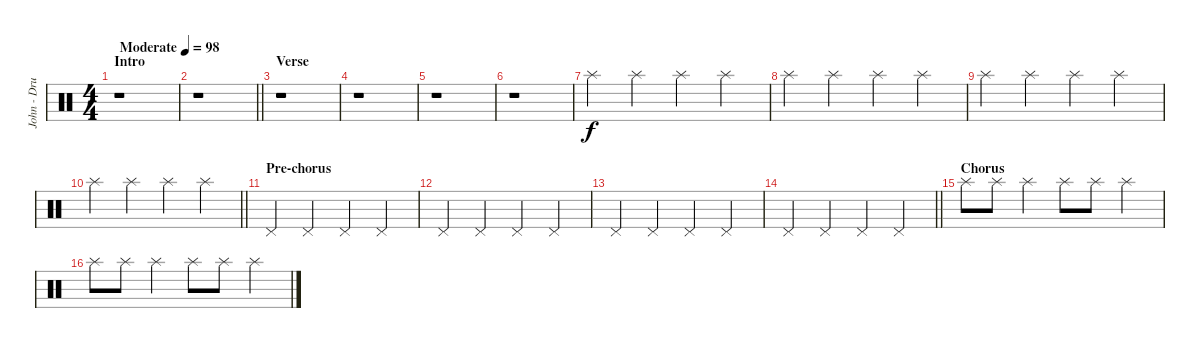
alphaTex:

\track ("John - Drums" "John - Dru") {instrument percussion}
\staff {score}
\articulation defaults
\ts (4 4)
\section ("" "Intro")
\tempo (98 "Moderate")
\clef neutral
\ks c
r.1{dy f} |
\barLineRight lightlight
r.1 |
\section ("" "Verse")
r.1 |
r.1 |
r.1 |
r.1 |
"Splash (hit)".4 "Splash (hit)".4 "Splash (hit)".4 "Splash (hit)".4 |
"Splash (hit)".4 "Splash (hit)".4 "Splash (hit)".4 "Splash (hit)".4 |
"Splash (hit)".4 "Splash (hit)".4 "Splash (hit)".4 "Splash (hit)".4 |
\barLineRight lightlight "Splash (hit)".4 "Splash (hit)".4 "Splash (hit)".4 "Splash (hit)".4
|
\section ("" "Pre-chorus")
"Pedal Hi-Hat (hit)".4 "Pedal Hi-Hat (hit)".4 "Pedal Hi-Hat (hit)".4 "Pedal Hi-Hat (hit)".4 |
"Pedal Hi-Hat (hit)".4 "Pedal Hi-Hat (hit)".4 "Pedal Hi-Hat (hit)".4 "Pedal Hi-Hat (hit)".4 |
"Pedal Hi-Hat (hit)".4 "Pedal Hi-Hat (hit)".4 "Pedal Hi-Hat (hit)".4 "Pedal Hi-Hat (hit)".4 |
\barLineRight lightlight "Pedal Hi-Hat (hit)".4 "Pedal Hi-Hat (hit)".4 "Pedal Hi-Hat (hit)".4 "Pedal Hi-Hat (hit)".4
|
\section ("" "Chorus")
"Splash (hit)".8 "Splash (hit)".8 "Splash (hit)".4 "Splash (hit)".8 "Splash (hit)".8 "Splash (hit)".4 |
"Splash (hit)".8 "Splash (hit)".8 "Splash (hit)".4 "Splash (hit)".8 "Splash (hit)".8 "Splash (hit)".4
